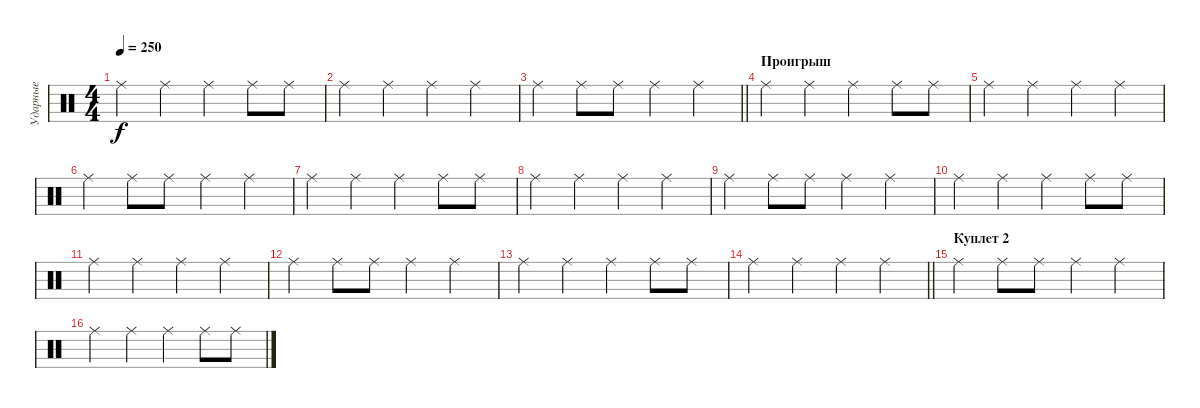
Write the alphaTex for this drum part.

\track ("Ударные" "Ударные") {instrument percussion}
\staff {score}
\articulation defaults
\ts (4 4)
\tempo 250
\clef neutral
\ks c "Ride (middle)".4{dy f} "Ride (middle)".4 "Ride (middle)".4 "Ride (middle)".8 "Ride (middle)".8
|
"Ride (middle)".4 "Ride (middle)".4 "Ride (middle)".4 "Ride (middle)".4 |
\barLineRight lightlight "Ride (middle)".4 "Ride (middle)".8 "Ride (middle)".8 "Ride (middle)".4 "Ride (middle)".4
|
\section ("" "Проигрыш")
"Ride (middle)".4 "Ride (middle)".4 "Ride (middle)".4 "Ride (middle)".8 "Ride (middle)".8 |
"Ride (middle)".4 "Ride (middle)".4 "Ride (middle)".4 "Ride (middle)".4 |
"Ride (middle)".4 "Ride (middle)".8 "Ride (middle)".8 "Ride (middle)".4 "Ride (middle)".4 |
"Ride (middle)".4 "Ride (middle)".4 "Ride (middle)".4 "Ride (middle)".8 "Ride (middle)".8 |
"Ride (middle)".4 "Ride (middle)".4 "Ride (middle)".4 "Ride (middle)".4 |
"Ride (middle)".4 "Ride (middle)".8 "Ride (middle)".8 "Ride (middle)".4 "Ride (middle)".4 |
"Ride (middle)".4 "Ride (middle)".4 "Ride (middle)".4 "Ride (middle)".8 "Ride (middle)".8 |
"Ride (middle)".4 "Ride (middle)".4 "Ride (middle)".4 "Ride (middle)".4 |
"Ride (middle)".4 "Ride (middle)".8 "Ride (middle)".8 "Ride (middle)".4 "Ride (middle)".4 |
"Ride (middle)".4 "Ride (middle)".4 "Ride (middle)".4 "Ride (middle)".8 "Ride (middle)".8 |
\barLineRight lightlight "Ride (middle)".4 "Ride (middle)".4 "Ride (middle)".4 "Ride (middle)".4
|
\section ("" "Куплет 2")
"Ride (middle)".4 "Ride (middle)".8 "Ride (middle)".8 "Ride (middle)".4 "Ride (middle)".4 |
"Ride (middle)".4 "Ride (middle)".4 "Ride (middle)".4 "Ride (middle)".8 "Ride (middle)".8
